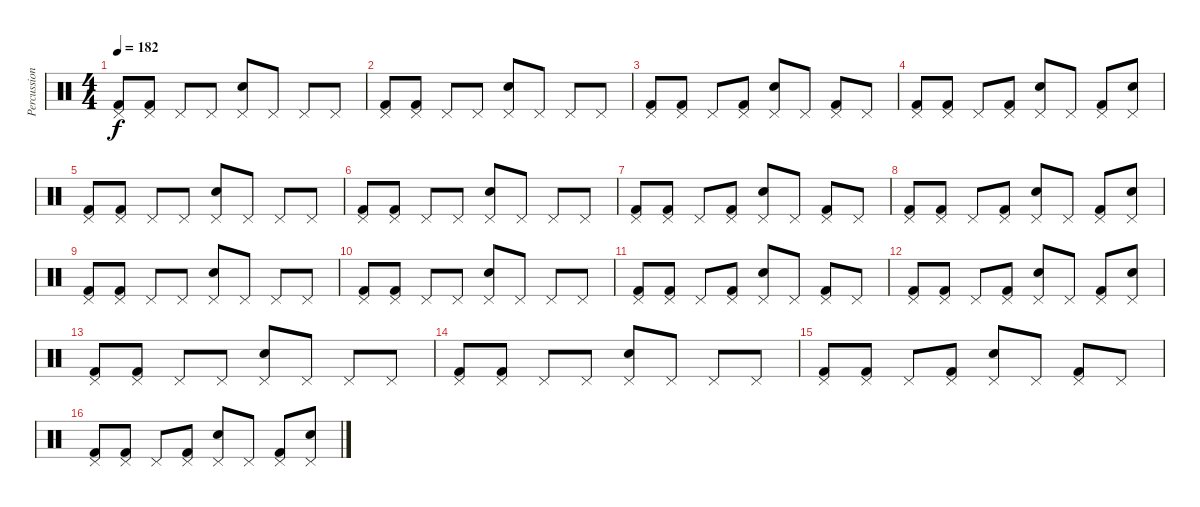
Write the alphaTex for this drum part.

\track ("Percussion" "Percussion") {instrument percussion}
\staff {score}
\articulation defaults
\ts (4 4)
\tempo 182
\clef neutral
\ks c
("Pedal Hi-Hat (hit)" "Kick (hit) 2").8{dy f} ("Pedal Hi-Hat (hit)" "Kick (hit) 2").8 "Pedal Hi-Hat (hit)".8 "Pedal Hi-Hat (hit)".8 ("Pedal Hi-Hat (hit)" "Snare (hit) 2").8 "Pedal Hi-Hat (hit)".8 "Pedal Hi-Hat (hit)".8 "Pedal Hi-Hat (hit)".8 |
("Pedal Hi-Hat (hit)" "Kick (hit) 2").8 ("Pedal Hi-Hat (hit)" "Kick (hit) 2").8 "Pedal Hi-Hat (hit)".8 "Pedal Hi-Hat (hit)".8 ("Pedal Hi-Hat (hit)" "Snare (hit) 2").8 "Pedal Hi-Hat (hit)".8 "Pedal Hi-Hat (hit)".8 "Pedal Hi-Hat (hit)".8 |
("Pedal Hi-Hat (hit)" "Kick (hit) 2").8 ("Pedal Hi-Hat (hit)" "Kick (hit) 2").8 "Pedal Hi-Hat (hit)".8 ("Pedal Hi-Hat (hit)" "Kick (hit) 2").8 ("Pedal Hi-Hat (hit)" "Snare (hit) 2").8 "Pedal Hi-Hat (hit)".8 ("Pedal Hi-Hat (hit)" "Kick (hit) 2").8 "Pedal Hi-Hat (hit)".8 |
("Pedal Hi-Hat (hit)" "Kick (hit) 2").8 ("Pedal Hi-Hat (hit)" "Kick (hit) 2").8 "Pedal Hi-Hat (hit)".8 ("Pedal Hi-Hat (hit)" "Kick (hit) 2").8 ("Pedal Hi-Hat (hit)" "Snare (hit) 2").8 "Pedal Hi-Hat (hit)".8 ("Pedal Hi-Hat (hit)" "Kick (hit) 2").8 ("Pedal Hi-Hat (hit)" "Snare (hit) 2").8 |
("Pedal Hi-Hat (hit)" "Kick (hit) 2").8 ("Pedal Hi-Hat (hit)" "Kick (hit) 2").8 "Pedal Hi-Hat (hit)".8 "Pedal Hi-Hat (hit)".8 ("Pedal Hi-Hat (hit)" "Snare (hit) 2").8 "Pedal Hi-Hat (hit)".8 "Pedal Hi-Hat (hit)".8 "Pedal Hi-Hat (hit)".8 |
("Pedal Hi-Hat (hit)" "Kick (hit) 2").8 ("Pedal Hi-Hat (hit)" "Kick (hit) 2").8 "Pedal Hi-Hat (hit)".8 "Pedal Hi-Hat (hit)".8 ("Pedal Hi-Hat (hit)" "Snare (hit) 2").8 "Pedal Hi-Hat (hit)".8 "Pedal Hi-Hat (hit)".8 "Pedal Hi-Hat (hit)".8 |
("Pedal Hi-Hat (hit)" "Kick (hit) 2").8 ("Pedal Hi-Hat (hit)" "Kick (hit) 2").8 "Pedal Hi-Hat (hit)".8 ("Pedal Hi-Hat (hit)" "Kick (hit) 2").8 ("Pedal Hi-Hat (hit)" "Snare (hit) 2").8 "Pedal Hi-Hat (hit)".8 ("Pedal Hi-Hat (hit)" "Kick (hit) 2").8 "Pedal Hi-Hat (hit)".8 |
("Pedal Hi-Hat (hit)" "Kick (hit) 2").8 ("Pedal Hi-Hat (hit)" "Kick (hit) 2").8 "Pedal Hi-Hat (hit)".8 ("Pedal Hi-Hat (hit)" "Kick (hit) 2").8 ("Pedal Hi-Hat (hit)" "Snare (hit) 2").8 "Pedal Hi-Hat (hit)".8 ("Pedal Hi-Hat (hit)" "Kick (hit) 2").8 ("Pedal Hi-Hat (hit)" "Snare (hit) 2").8 |
("Pedal Hi-Hat (hit)" "Kick (hit) 2").8 ("Pedal Hi-Hat (hit)" "Kick (hit) 2").8 "Pedal Hi-Hat (hit)".8 "Pedal Hi-Hat (hit)".8 ("Pedal Hi-Hat (hit)" "Snare (hit) 2").8 "Pedal Hi-Hat (hit)".8 "Pedal Hi-Hat (hit)".8 "Pedal Hi-Hat (hit)".8 |
("Pedal Hi-Hat (hit)" "Kick (hit) 2").8 ("Pedal Hi-Hat (hit)" "Kick (hit) 2").8 "Pedal Hi-Hat (hit)".8 "Pedal Hi-Hat (hit)".8 ("Pedal Hi-Hat (hit)" "Snare (hit) 2").8 "Pedal Hi-Hat (hit)".8 "Pedal Hi-Hat (hit)".8 "Pedal Hi-Hat (hit)".8 |
("Pedal Hi-Hat (hit)" "Kick (hit) 2").8 ("Pedal Hi-Hat (hit)" "Kick (hit) 2").8 "Pedal Hi-Hat (hit)".8 ("Pedal Hi-Hat (hit)" "Kick (hit) 2").8 ("Pedal Hi-Hat (hit)" "Snare (hit) 2").8 "Pedal Hi-Hat (hit)".8 ("Pedal Hi-Hat (hit)" "Kick (hit) 2").8 "Pedal Hi-Hat (hit)".8 |
("Pedal Hi-Hat (hit)" "Kick (hit) 2").8 ("Pedal Hi-Hat (hit)" "Kick (hit) 2").8 "Pedal Hi-Hat (hit)".8 ("Pedal Hi-Hat (hit)" "Kick (hit) 2").8 ("Pedal Hi-Hat (hit)" "Snare (hit) 2").8 "Pedal Hi-Hat (hit)".8 ("Pedal Hi-Hat (hit)" "Kick (hit) 2").8 ("Pedal Hi-Hat (hit)" "Snare (hit) 2").8 |
("Pedal Hi-Hat (hit)" "Kick (hit) 2").8 ("Pedal Hi-Hat (hit)" "Kick (hit) 2").8 "Pedal Hi-Hat (hit)".8 "Pedal Hi-Hat (hit)".8 ("Pedal Hi-Hat (hit)" "Snare (hit) 2").8 "Pedal Hi-Hat (hit)".8 "Pedal Hi-Hat (hit)".8 "Pedal Hi-Hat (hit)".8 |
("Pedal Hi-Hat (hit)" "Kick (hit) 2").8 ("Pedal Hi-Hat (hit)" "Kick (hit) 2").8 "Pedal Hi-Hat (hit)".8 "Pedal Hi-Hat (hit)".8 ("Pedal Hi-Hat (hit)" "Snare (hit) 2").8 "Pedal Hi-Hat (hit)".8 "Pedal Hi-Hat (hit)".8 "Pedal Hi-Hat (hit)".8 |
("Pedal Hi-Hat (hit)" "Kick (hit) 2").8 ("Pedal Hi-Hat (hit)" "Kick (hit) 2").8 "Pedal Hi-Hat (hit)".8 ("Pedal Hi-Hat (hit)" "Kick (hit) 2").8 ("Pedal Hi-Hat (hit)" "Snare (hit) 2").8 "Pedal Hi-Hat (hit)".8 ("Pedal Hi-Hat (hit)" "Kick (hit) 2").8 "Pedal Hi-Hat (hit)".8 |
("Pedal Hi-Hat (hit)" "Kick (hit) 2").8 ("Pedal Hi-Hat (hit)" "Kick (hit) 2").8 "Pedal Hi-Hat (hit)".8 ("Pedal Hi-Hat (hit)" "Kick (hit) 2").8 ("Pedal Hi-Hat (hit)" "Snare (hit) 2").8 "Pedal Hi-Hat (hit)".8 ("Pedal Hi-Hat (hit)" "Kick (hit) 2").8 ("Pedal Hi-Hat (hit)" "Snare (hit) 2").8
